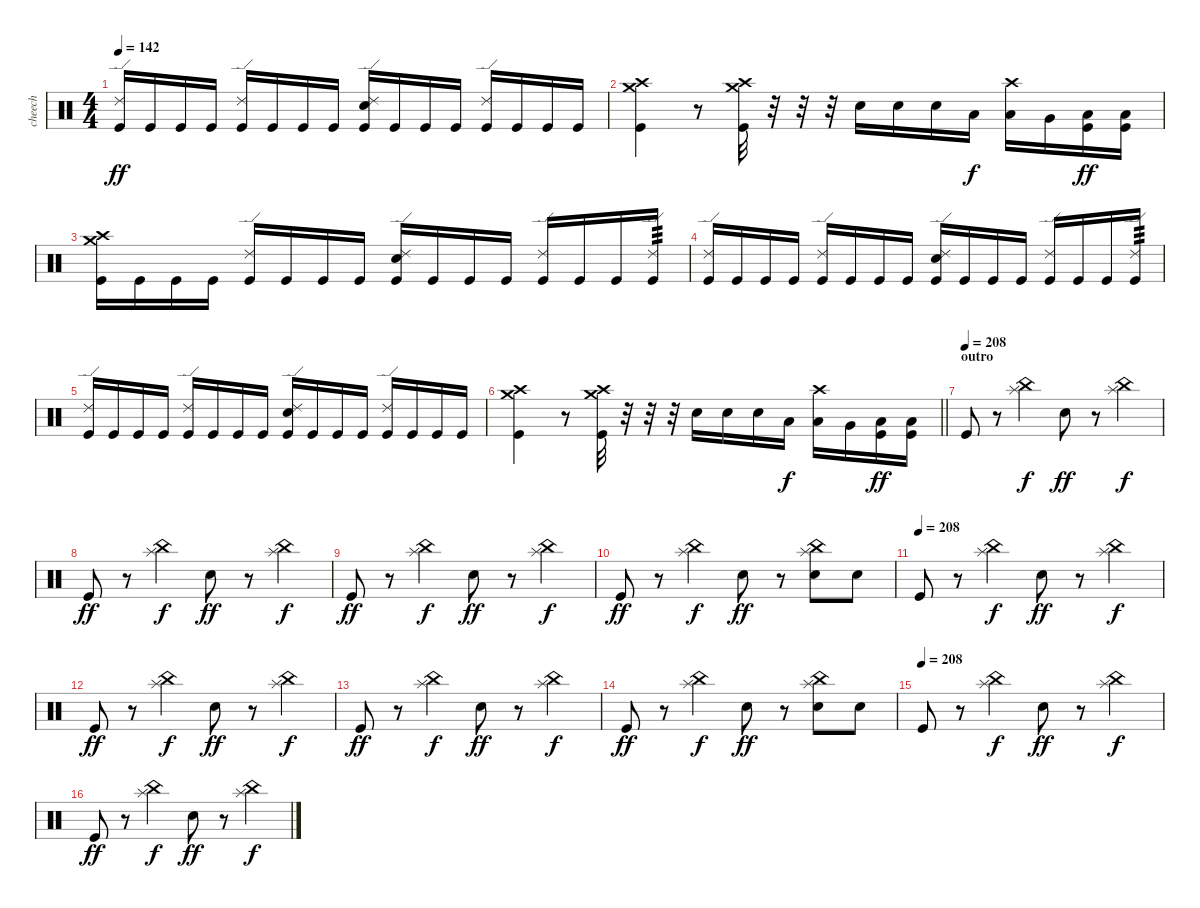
\track ("cheech" "cheech") {instrument percussion}
\staff {score}
\articulation defaults
\ts (4 4)
\tempo 142
\clef neutral
\ks c
("Ride (edge) 2" "Kick (hit)").16{dy ff} "Kick (hit)".16 "Kick (hit)".16 "Kick (hit)".16 ("Ride (edge) 2" "Kick (hit)").16 "Kick (hit)".16 "Kick (hit)".16 "Kick (hit)".16 ("Ride (edge) 2" "Electric Snare (hit)" "Kick (hit)").16 "Kick (hit)".16 "Kick (hit)".16 "Kick (hit)".16 ("Ride (edge) 2" "Kick (hit)").16 "Kick (hit)".16 "Kick (hit)".16 "Kick (hit)".16 |
("Crash high (hit)" "Crash medium (hit)" "Kick (hit)").4 r.8 ("Crash medium (hit)" "Crash high (hit)" "Kick (hit)").32 r.32 r.32 r.32 "Electric Snare (hit)".16 "Electric Snare (hit)".16 "Electric Snare (hit)".16 "Low Tom (hit)".16{dy f} ("Crash high (hit)" "Low Tom (hit)").16 "Very Low Tom (hit)".16 ("Low Floor Tom (hit)" "Kick (hit)").16{dy ff} ("Low Floor Tom (hit)" "Kick (hit)").16 |
("Crash high (hit)" "Crash medium (hit)" "Kick (hit)").16 "Kick (hit)".16 "Kick (hit)".16 "Kick (hit)".16 ("Ride (edge) 2" "Kick (hit)").16 "Kick (hit)".16 "Kick (hit)".16 "Kick (hit)".16 ("Ride (edge) 2" "Electric Snare (hit)" "Kick (hit)").16 "Kick (hit)".16 "Kick (hit)".16 "Kick (hit)".16 ("Ride (edge) 2" "Kick (hit)").16 "Kick (hit)".16 "Kick (hit)".16 ("Ride (edge) 2" "Kick (hit)").16{tp 3} |
("Ride (edge) 2" "Kick (hit)").16 "Kick (hit)".16 "Kick (hit)".16 "Kick (hit)".16 ("Ride (edge) 2" "Kick (hit)").16 "Kick (hit)".16 "Kick (hit)".16 "Kick (hit)".16 ("Ride (edge) 2" "Electric Snare (hit)" "Kick (hit)").16 "Kick (hit)".16 "Kick (hit)".16 "Kick (hit)".16 ("Ride (edge) 2" "Kick (hit)").16 "Kick (hit)".16 "Kick (hit)".16 ("Ride (edge) 2" "Kick (hit)").16{tp 3} |
("Ride (edge) 2" "Kick (hit)").16 "Kick (hit)".16 "Kick (hit)".16 "Kick (hit)".16 ("Ride (edge) 2" "Kick (hit)").16 "Kick (hit)".16 "Kick (hit)".16 "Kick (hit)".16 ("Ride (edge) 2" "Electric Snare (hit)" "Kick (hit)").16 "Kick (hit)".16 "Kick (hit)".16 "Kick (hit)".16 ("Ride (edge) 2" "Kick (hit)").16 "Kick (hit)".16 "Kick (hit)".16 "Kick (hit)".16 |
\barLineRight lightlight
("Crash high (hit)" "Crash medium (hit)" "Kick (hit)").4 r.8 ("Crash medium (hit)" "Crash high (hit)" "Kick (hit)").32 r.32 r.32 r.32 "Electric Snare (hit)".16 "Electric Snare (hit)".16 "Electric Snare (hit)".16 "Low Tom (hit)".16{dy f} ("Crash high (hit)" "Low Tom (hit)").16 "Very Low Tom (hit)".16 ("Low Floor Tom (hit)" "Kick (hit)").16{dy ff} ("Low Floor Tom (hit)" "Kick (hit)").16 |
\section ("" "outro")
\tempo (208)
"Kick (hit)".8 r.8 ("China (hit)" "Splash (hit)").4{dy f} "Electric Snare (hit)".8{dy ff} r.8 ("China (hit)" "Splash (hit)").4{dy f} |
"Kick (hit)".8{dy ff} r.8 ("China (hit)" "Splash (hit)").4{dy f} "Electric Snare (hit)".8{dy ff} r.8 ("China (hit)" "Splash (hit)").4{dy f} |
"Kick (hit)".8{dy ff} r.8 ("China (hit)" "Splash (hit)").4{dy f} "Electric Snare (hit)".8{dy ff} r.8 ("China (hit)" "Splash (hit)").4{dy f} |
"Kick (hit)".8{dy ff} r.8 ("China (hit)" "Splash (hit)").4{dy f} "Electric Snare (hit)".8{dy ff} r.8 ("China (hit)" "Splash (hit)" "Electric Snare (hit)").8 "Electric Snare (hit)".8 |
\tempo (208)
"Kick (hit)".8 r.8 ("China (hit)" "Splash (hit)").4{dy f} "Electric Snare (hit)".8{dy ff} r.8 ("China (hit)" "Splash (hit)").4{dy f} |
"Kick (hit)".8{dy ff} r.8 ("China (hit)" "Splash (hit)").4{dy f} "Electric Snare (hit)".8{dy ff} r.8 ("China (hit)" "Splash (hit)").4{dy f} |
"Kick (hit)".8{dy ff} r.8 ("China (hit)" "Splash (hit)").4{dy f} "Electric Snare (hit)".8{dy ff} r.8 ("China (hit)" "Splash (hit)").4{dy f} |
"Kick (hit)".8{dy ff} r.8 ("China (hit)" "Splash (hit)").4{dy f} "Electric Snare (hit)".8{dy ff} r.8 ("China (hit)" "Splash (hit)" "Electric Snare (hit)").8 "Electric Snare (hit)".8 |
\tempo (208)
"Kick (hit)".8 r.8 ("China (hit)" "Splash (hit)").4{dy f} "Electric Snare (hit)".8{dy ff} r.8 ("China (hit)" "Splash (hit)").4{dy f} |
"Kick (hit)".8{dy ff} r.8 ("China (hit)" "Splash (hit)").4{dy f} "Electric Snare (hit)".8{dy ff} r.8 ("China (hit)" "Splash (hit)").4{dy f}
